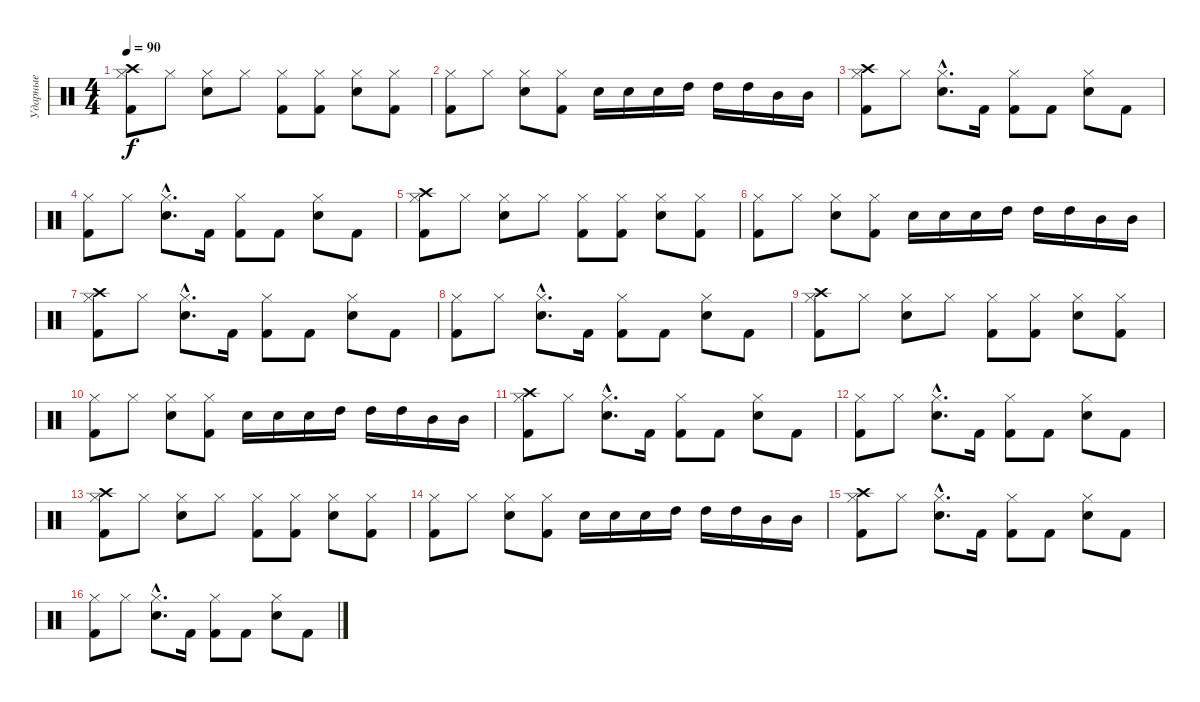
\track ("Ударные" "Ударные") {instrument percussion}
\staff {score}
\articulation defaults
\ts (4 4)
\tempo 90
\clef neutral
\ks c
("Crash high (hit)" "Hi-Hat (closed)" "Kick (hit) 2").8{dy f} "Hi-Hat (closed)".8 ("Hi-Hat (closed)" "Snare (hit) 2").8 "Hi-Hat (closed)".8 ("Hi-Hat (closed)" "Kick (hit) 2").8 ("Hi-Hat (closed)" "Kick (hit) 2").8 ("Hi-Hat (closed)" "Snare (hit) 2").8 ("Hi-Hat (closed)" "Kick (hit) 2").8 |
("Hi-Hat (closed)" "Kick (hit) 2").8 "Hi-Hat (closed)".8 ("Hi-Hat (closed)" "Snare (hit) 2").8 ("Hi-Hat (closed)" "Kick (hit) 2").8 "Snare (hit) 2".16 "Snare (hit) 2".16 "Snare (hit) 2".16 "High Tom (hit)".16 "High Tom (hit)".16 "High Tom (hit)".16 "Mid Tom (hit)".16 "Mid Tom (hit)".16 |
("Crash high (hit)" "Hi-Hat (closed)" "Kick (hit) 2").8 "Hi-Hat (closed)".8 ("Hi-Hat (closed)"{hac} "Snare (hit) 2"{hac}).8{d} "Kick (hit) 2".16 ("Hi-Hat (closed)" "Kick (hit) 2").8 "Kick (hit) 2".8 ("Hi-Hat (closed)" "Snare (hit) 2").8 "Kick (hit) 2".8 |
("Hi-Hat (closed)" "Kick (hit) 2").8 "Hi-Hat (closed)".8 ("Hi-Hat (closed)"{hac} "Snare (hit) 2"{hac}).8{d} "Kick (hit) 2".16 ("Hi-Hat (closed)" "Kick (hit) 2").8 "Kick (hit) 2".8 ("Hi-Hat (closed)" "Snare (hit) 2").8 "Kick (hit) 2".8 |
("Crash high (hit)" "Hi-Hat (closed)" "Kick (hit) 2").8 "Hi-Hat (closed)".8 ("Hi-Hat (closed)" "Snare (hit) 2").8 "Hi-Hat (closed)".8 ("Hi-Hat (closed)" "Kick (hit) 2").8 ("Hi-Hat (closed)" "Kick (hit) 2").8 ("Hi-Hat (closed)" "Snare (hit) 2").8 ("Hi-Hat (closed)" "Kick (hit) 2").8 |
("Hi-Hat (closed)" "Kick (hit) 2").8 "Hi-Hat (closed)".8 ("Hi-Hat (closed)" "Snare (hit) 2").8 ("Hi-Hat (closed)" "Kick (hit) 2").8 "Snare (hit) 2".16 "Snare (hit) 2".16 "Snare (hit) 2".16 "High Tom (hit)".16 "High Tom (hit)".16 "High Tom (hit)".16 "Mid Tom (hit)".16 "Mid Tom (hit)".16 |
("Crash high (hit)" "Hi-Hat (closed)" "Kick (hit) 2").8 "Hi-Hat (closed)".8 ("Hi-Hat (closed)"{hac} "Snare (hit) 2"{hac}).8{d} "Kick (hit) 2".16 ("Hi-Hat (closed)" "Kick (hit) 2").8 "Kick (hit) 2".8 ("Hi-Hat (closed)" "Snare (hit) 2").8 "Kick (hit) 2".8 |
("Hi-Hat (closed)" "Kick (hit) 2").8 "Hi-Hat (closed)".8 ("Hi-Hat (closed)"{hac} "Snare (hit) 2"{hac}).8{d} "Kick (hit) 2".16 ("Hi-Hat (closed)" "Kick (hit) 2").8 "Kick (hit) 2".8 ("Hi-Hat (closed)" "Snare (hit) 2").8 "Kick (hit) 2".8 |
("Crash high (hit)" "Hi-Hat (closed)" "Kick (hit) 2").8 "Hi-Hat (closed)".8 ("Hi-Hat (closed)" "Snare (hit) 2").8 "Hi-Hat (closed)".8 ("Hi-Hat (closed)" "Kick (hit) 2").8 ("Hi-Hat (closed)" "Kick (hit) 2").8 ("Hi-Hat (closed)" "Snare (hit) 2").8 ("Hi-Hat (closed)" "Kick (hit) 2").8 |
("Hi-Hat (closed)" "Kick (hit) 2").8 "Hi-Hat (closed)".8 ("Hi-Hat (closed)" "Snare (hit) 2").8 ("Hi-Hat (closed)" "Kick (hit) 2").8 "Snare (hit) 2".16 "Snare (hit) 2".16 "Snare (hit) 2".16 "High Tom (hit)".16 "High Tom (hit)".16 "High Tom (hit)".16 "Mid Tom (hit)".16 "Mid Tom (hit)".16 |
("Crash high (hit)" "Hi-Hat (closed)" "Kick (hit) 2").8 "Hi-Hat (closed)".8 ("Hi-Hat (closed)"{hac} "Snare (hit) 2"{hac}).8{d} "Kick (hit) 2".16 ("Hi-Hat (closed)" "Kick (hit) 2").8 "Kick (hit) 2".8 ("Hi-Hat (closed)" "Snare (hit) 2").8 "Kick (hit) 2".8 |
("Hi-Hat (closed)" "Kick (hit) 2").8 "Hi-Hat (closed)".8 ("Hi-Hat (closed)"{hac} "Snare (hit) 2"{hac}).8{d} "Kick (hit) 2".16 ("Hi-Hat (closed)" "Kick (hit) 2").8 "Kick (hit) 2".8 ("Hi-Hat (closed)" "Snare (hit) 2").8 "Kick (hit) 2".8 |
("Crash high (hit)" "Hi-Hat (closed)" "Kick (hit) 2").8 "Hi-Hat (closed)".8 ("Hi-Hat (closed)" "Snare (hit) 2").8 "Hi-Hat (closed)".8 ("Hi-Hat (closed)" "Kick (hit) 2").8 ("Hi-Hat (closed)" "Kick (hit) 2").8 ("Hi-Hat (closed)" "Snare (hit) 2").8 ("Hi-Hat (closed)" "Kick (hit) 2").8 |
("Hi-Hat (closed)" "Kick (hit) 2").8 "Hi-Hat (closed)".8 ("Hi-Hat (closed)" "Snare (hit) 2").8 ("Hi-Hat (closed)" "Kick (hit) 2").8 "Snare (hit) 2".16 "Snare (hit) 2".16 "Snare (hit) 2".16 "High Tom (hit)".16 "High Tom (hit)".16 "High Tom (hit)".16 "Mid Tom (hit)".16 "Mid Tom (hit)".16 |
("Crash high (hit)" "Hi-Hat (closed)" "Kick (hit) 2").8 "Hi-Hat (closed)".8 ("Hi-Hat (closed)"{hac} "Snare (hit) 2"{hac}).8{d} "Kick (hit) 2".16 ("Hi-Hat (closed)" "Kick (hit) 2").8 "Kick (hit) 2".8 ("Hi-Hat (closed)" "Snare (hit) 2").8 "Kick (hit) 2".8 |
("Hi-Hat (closed)" "Kick (hit) 2").8 "Hi-Hat (closed)".8 ("Hi-Hat (closed)"{hac} "Snare (hit) 2"{hac}).8{d} "Kick (hit) 2".16 ("Hi-Hat (closed)" "Kick (hit) 2").8 "Kick (hit) 2".8 ("Hi-Hat (closed)" "Snare (hit) 2").8 "Kick (hit) 2".8
